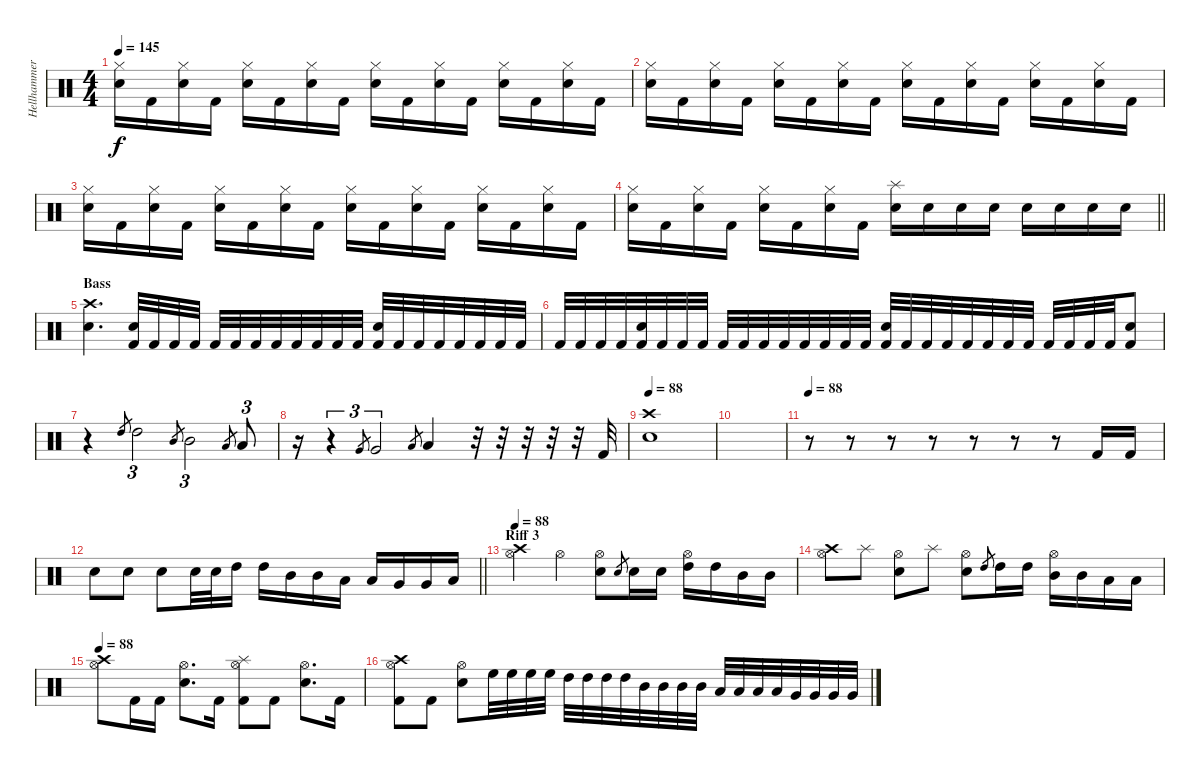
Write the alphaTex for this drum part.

\track ("Hellhammer" "Hellhammer") {instrument percussion}
\staff {score}
\articulation defaults
\ts (4 4)
\tempo 145
\clef neutral
\ks c
("Hi-Hat (closed)" "Snare (hit) 2").16{dy f} "Kick (hit) 2".16 ("Hi-Hat (closed)" "Snare (hit) 2").16 "Kick (hit) 2".16 ("Hi-Hat (closed)" "Snare (hit) 2").16 "Kick (hit) 2".16 ("Hi-Hat (closed)" "Snare (hit) 2").16 "Kick (hit) 2".16 ("Hi-Hat (closed)" "Snare (hit) 2").16 "Kick (hit) 2".16 ("Hi-Hat (closed)" "Snare (hit) 2").16 "Kick (hit) 2".16 ("Hi-Hat (closed)" "Snare (hit) 2").16 "Kick (hit) 2".16 ("Hi-Hat (closed)" "Snare (hit) 2").16 "Kick (hit) 2".16 |
("Hi-Hat (closed)" "Snare (hit) 2").16 "Kick (hit) 2".16 ("Hi-Hat (closed)" "Snare (hit) 2").16 "Kick (hit) 2".16 ("Hi-Hat (closed)" "Snare (hit) 2").16 "Kick (hit) 2".16 ("Hi-Hat (closed)" "Snare (hit) 2").16 "Kick (hit) 2".16 ("Hi-Hat (closed)" "Snare (hit) 2").16 "Kick (hit) 2".16 ("Hi-Hat (closed)" "Snare (hit) 2").16 "Kick (hit) 2".16 ("Hi-Hat (closed)" "Snare (hit) 2").16 "Kick (hit) 2".16 ("Hi-Hat (closed)" "Snare (hit) 2").16 "Kick (hit) 2".16 |
("Hi-Hat (closed)" "Snare (hit) 2").16 "Kick (hit) 2".16 ("Hi-Hat (closed)" "Snare (hit) 2").16 "Kick (hit) 2".16 ("Hi-Hat (closed)" "Snare (hit) 2").16 "Kick (hit) 2".16 ("Hi-Hat (closed)" "Snare (hit) 2").16 "Kick (hit) 2".16 ("Hi-Hat (closed)" "Snare (hit) 2").16 "Kick (hit) 2".16 ("Hi-Hat (closed)" "Snare (hit) 2").16 "Kick (hit) 2".16 ("Hi-Hat (closed)" "Snare (hit) 2").16 "Kick (hit) 2".16 ("Hi-Hat (closed)" "Snare (hit) 2").16 "Kick (hit) 2".16 |
\barLineRight lightlight
("Hi-Hat (closed)" "Snare (hit) 2").16 "Kick (hit) 2".16 ("Hi-Hat (closed)" "Snare (hit) 2").16 "Kick (hit) 2".16 ("Hi-Hat (closed)" "Snare (hit) 2").16 "Kick (hit) 2".16 ("Hi-Hat (closed)" "Snare (hit) 2").16 "Kick (hit) 2".16 ("Splash (hit)" "Snare (hit) 2").16 "Snare (hit) 2".16 "Snare (hit) 2".16 "Snare (hit) 2".16 "Snare (hit) 2".16 "Snare (hit) 2".16 "Snare (hit) 2".16 "Snare (hit) 2".16 |
\section ("" "Bass")
("Snare (hit) 2" "Crash high (hit)").4{d} ("Snare (hit) 2" "Kick (hit) 2").32 "Kick (hit) 2".32 "Kick (hit) 2".32 "Kick (hit) 2".32 "Kick (hit) 2".32 "Kick (hit) 2".32 "Kick (hit) 2".32 "Kick (hit) 2".32 "Kick (hit) 2".32 "Kick (hit) 2".32 "Kick (hit) 2".32 "Kick (hit) 2".32 ("Snare (hit) 2" "Kick (hit) 2").32 "Kick (hit) 2".32 "Kick (hit) 2".32 "Kick (hit) 2".32 "Kick (hit) 2".32 "Kick (hit) 2".32 "Kick (hit) 2".32 "Kick (hit) 2".32 |
"Kick (hit) 2".32 "Kick (hit) 2".32 "Kick (hit) 2".32 "Kick (hit) 2".32 ("Snare (hit) 2" "Kick (hit) 2").32 "Kick (hit) 2".32 "Kick (hit) 2".32 "Kick (hit) 2".32 "Kick (hit) 2".32 "Kick (hit) 2".32 "Kick (hit) 2".32 "Kick (hit) 2".32 "Kick (hit) 2".32 "Kick (hit) 2".32 "Kick (hit) 2".32 "Kick (hit) 2".32 ("Snare (hit) 2" "Kick (hit) 2").32 "Kick (hit) 2".32 "Kick (hit) 2".32 "Kick (hit) 2".32 "Kick (hit) 2".32 "Kick (hit) 2".32 "Kick (hit) 2".32 "Kick (hit) 2".32 "Kick (hit) 2".32 "Kick (hit) 2".32 "Kick (hit) 2".32 "Kick (hit) 2".32 ("Snare (hit) 2" "Kick (hit) 2").8 |
r.4 "High Tom (hit)".8{gr} "High Tom (hit)".2{tu (3 2)} "Mid Tom (hit)".8{gr} "Mid Tom (hit)".2{tu (3 2)} "Low Tom (hit)".8{gr} "Low Tom (hit)".8{tu (3 2)} |
r.16 r.4{tu (3 2)} "Very Low Tom (hit)".8{gr} "Very Low Tom (hit)".2{tu (3 2)} "Low Floor Tom (hit)".8{gr} "Low Floor Tom (hit)".4 r.32 r.32 r.32 r.32 r.32 "Kick (hit) 2".32 |
\tempo 88
("Crash high (hit)" "Snare (hit) 2").1 |
|
\tempo 88
r.8 r.8 r.8 r.8 r.8 r.8 r.8 "Kick (hit) 2".16 "Kick (hit) 2".16 |
\barLineRight lightlight "Snare (hit) 2".8 "Snare (hit) 2".8 "Snare (hit) 2".8 "Electric Snare (hit)".32 "Electric Snare (hit)".32 "High Tom (hit)".16 "High Tom (hit)".16 "Mid Tom (hit)".16 "Mid Tom (hit)".16 "Low Tom (hit)".16 "Low Tom (hit)".16 "Very Low Tom (hit)".16 "Very Low Tom (hit)".16 "Low Floor Tom (hit)".16
|
\section ("" "Riff 3")
\tempo 88
("Crash high (hit)" "Hi-Hat (open)").4 "Hi-Hat (open)".4 ("Snare (hit) 2" "Hi-Hat (open)").8 "Snare (hit) 2".8{gr} "Snare (hit) 2".16 "Snare (hit) 2".16 ("High Tom (hit)" "Hi-Hat (open)").16 "High Tom (hit)".16 "Mid Tom (hit)".16 "Mid Tom (hit)".16 |
("Crash high (hit)" "Hi-Hat (open)").8 "Splash (hit)".8 ("Hi-Hat (open)" "Snare (hit) 2").8 "Splash (hit)".8 ("Hi-Hat (open)" "Snare (hit) 2").8 "High Tom (hit)".8{gr} "High Tom (hit)".16 "High Tom (hit)".16 ("Mid Tom (hit)" "Hi-Hat (open)").16 "Mid Tom (hit)".16 "Low Tom (hit)".16 "Low Tom (hit)".16 |
\tempo 88
("Hi-Hat (open)" "Crash high (hit)").8 "Kick (hit) 2".16 "Kick (hit) 2".16 ("Hi-Hat (open)" "Snare (hit) 2").8{d} "Kick (hit) 2".16 ("Hi-Hat (open)" "Splash (hit)" "Kick (hit) 2").8 "Kick (hit) 2".8 ("Hi-Hat (open)" "Snare (hit) 2").8{d} "Kick (hit) 2".16 |
("Hi-Hat (open)" "Crash high (hit)" "Kick (hit) 2").8 "Kick (hit) 2".8 ("Hi-Hat (open)" "Snare (hit) 2").8 "High Floor Tom (hit)".32 "High Floor Tom (hit)".32 "High Floor Tom (hit)".32 "High Floor Tom (hit)".32 "High Tom (hit)".32 "High Tom (hit)".32 "High Tom (hit)".32 "High Tom (hit)".32 "Mid Tom (hit)".32 "Mid Tom (hit)".32 "Mid Tom (hit)".32 "Mid Tom (hit)".32 "Low Tom (hit)".32 "Low Tom (hit)".32 "Low Tom (hit)".32 "Low Tom (hit)".32 "Very Low Tom (hit)".32 "Very Low Tom (hit)".32 "Very Low Tom (hit)".32 "Very Low Tom (hit)".32
